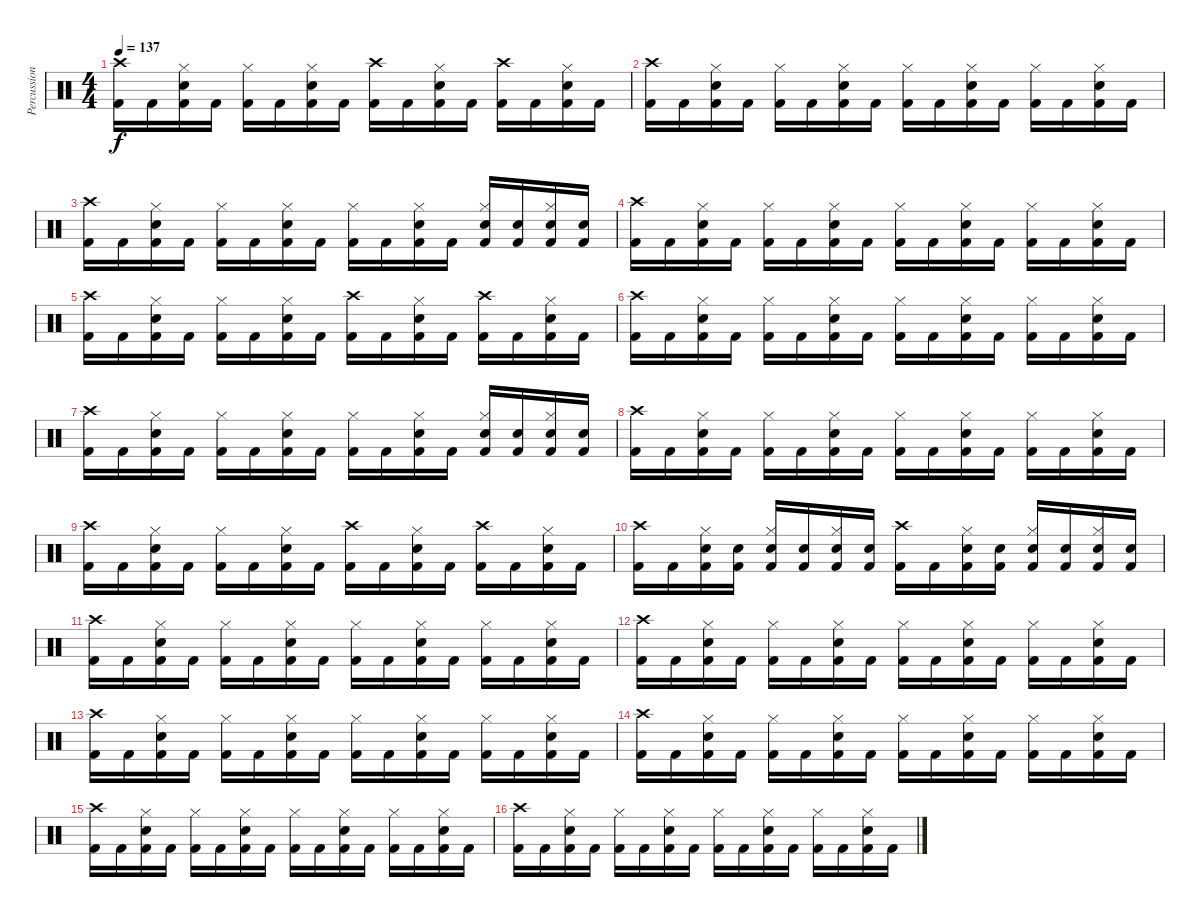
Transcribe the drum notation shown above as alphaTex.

\track ("Percussion" "Percussion") {instrument percussion}
\staff {score}
\articulation defaults
\ts (4 4)
\tempo 137
\clef neutral
\ks c
("Crash high (hit)" "Kick (hit) 2").16{dy f} "Kick (hit) 2".16 ("Hi-Hat (closed)" "Snare (hit) 2" "Kick (hit) 2").16 "Kick (hit) 2".16 ("Hi-Hat (closed)" "Kick (hit) 2").16 "Kick (hit) 2".16 ("Hi-Hat (closed)" "Snare (hit) 2" "Kick (hit) 2").16 "Kick (hit) 2".16 ("Crash high (hit)" "Kick (hit) 2").16 "Kick (hit) 2".16 ("Hi-Hat (closed)" "Snare (hit) 2" "Kick (hit) 2").16 "Kick (hit) 2".16 ("Crash high (hit)" "Kick (hit) 2").16 "Kick (hit) 2".16 ("Hi-Hat (closed)" "Snare (hit) 2" "Kick (hit) 2").16 "Kick (hit) 2".16 |
("Crash high (hit)" "Kick (hit) 2").16 "Kick (hit) 2".16 ("Hi-Hat (closed)" "Snare (hit) 2" "Kick (hit) 2").16 "Kick (hit) 2".16 ("Hi-Hat (closed)" "Kick (hit) 2").16 "Kick (hit) 2".16 ("Hi-Hat (closed)" "Snare (hit) 2" "Kick (hit) 2").16 "Kick (hit) 2".16 ("Hi-Hat (closed)" "Kick (hit) 2").16 "Kick (hit) 2".16 ("Hi-Hat (closed)" "Snare (hit) 2" "Kick (hit) 2").16 "Kick (hit) 2".16 ("Hi-Hat (closed)" "Kick (hit) 2").16 "Kick (hit) 2".16 ("Hi-Hat (closed)" "Snare (hit) 2" "Kick (hit) 2").16 "Kick (hit) 2".16 |
("Crash high (hit)" "Kick (hit) 2").16 "Kick (hit) 2".16 ("Hi-Hat (closed)" "Snare (hit) 2" "Kick (hit) 2").16 "Kick (hit) 2".16 ("Hi-Hat (closed)" "Kick (hit) 2").16 "Kick (hit) 2".16 ("Hi-Hat (closed)" "Snare (hit) 2" "Kick (hit) 2").16 "Kick (hit) 2".16 ("Hi-Hat (closed)" "Kick (hit) 2").16 "Kick (hit) 2".16 ("Hi-Hat (closed)" "Snare (hit) 2" "Kick (hit) 2").16 "Kick (hit) 2".16 ("Hi-Hat (closed)" "Snare (hit) 2" "Kick (hit) 2").16 ("Snare (hit) 2" "Kick (hit) 2").16 ("Hi-Hat (closed)" "Snare (hit) 2" "Kick (hit) 2").16 ("Snare (hit) 2" "Kick (hit) 2").16 |
("Crash high (hit)" "Kick (hit) 2").16 "Kick (hit) 2".16 ("Hi-Hat (closed)" "Snare (hit) 2" "Kick (hit) 2").16 "Kick (hit) 2".16 ("Hi-Hat (closed)" "Kick (hit) 2").16 "Kick (hit) 2".16 ("Hi-Hat (closed)" "Snare (hit) 2" "Kick (hit) 2").16 "Kick (hit) 2".16 ("Hi-Hat (closed)" "Kick (hit) 2").16 "Kick (hit) 2".16 ("Hi-Hat (closed)" "Snare (hit) 2" "Kick (hit) 2").16 "Kick (hit) 2".16 ("Hi-Hat (closed)" "Kick (hit) 2").16 "Kick (hit) 2".16 ("Hi-Hat (closed)" "Snare (hit) 2" "Kick (hit) 2").16 "Kick (hit) 2".16 |
("Crash high (hit)" "Kick (hit) 2").16 "Kick (hit) 2".16 ("Hi-Hat (closed)" "Snare (hit) 2" "Kick (hit) 2").16 "Kick (hit) 2".16 ("Hi-Hat (closed)" "Kick (hit) 2").16 "Kick (hit) 2".16 ("Hi-Hat (closed)" "Snare (hit) 2" "Kick (hit) 2").16 "Kick (hit) 2".16 ("Crash high (hit)" "Kick (hit) 2").16 "Kick (hit) 2".16 ("Hi-Hat (closed)" "Snare (hit) 2" "Kick (hit) 2").16 "Kick (hit) 2".16 ("Crash high (hit)" "Kick (hit) 2").16 "Kick (hit) 2".16 ("Hi-Hat (closed)" "Snare (hit) 2" "Kick (hit) 2").16 "Kick (hit) 2".16 |
("Crash high (hit)" "Kick (hit) 2").16 "Kick (hit) 2".16 ("Hi-Hat (closed)" "Snare (hit) 2" "Kick (hit) 2").16 "Kick (hit) 2".16 ("Hi-Hat (closed)" "Kick (hit) 2").16 "Kick (hit) 2".16 ("Hi-Hat (closed)" "Snare (hit) 2" "Kick (hit) 2").16 "Kick (hit) 2".16 ("Hi-Hat (closed)" "Kick (hit) 2").16 "Kick (hit) 2".16 ("Hi-Hat (closed)" "Snare (hit) 2" "Kick (hit) 2").16 "Kick (hit) 2".16 ("Hi-Hat (closed)" "Kick (hit) 2").16 "Kick (hit) 2".16 ("Hi-Hat (closed)" "Snare (hit) 2" "Kick (hit) 2").16 "Kick (hit) 2".16 |
("Crash high (hit)" "Kick (hit) 2").16 "Kick (hit) 2".16 ("Hi-Hat (closed)" "Snare (hit) 2" "Kick (hit) 2").16 "Kick (hit) 2".16 ("Hi-Hat (closed)" "Kick (hit) 2").16 "Kick (hit) 2".16 ("Hi-Hat (closed)" "Snare (hit) 2" "Kick (hit) 2").16 "Kick (hit) 2".16 ("Hi-Hat (closed)" "Kick (hit) 2").16 "Kick (hit) 2".16 ("Hi-Hat (closed)" "Snare (hit) 2" "Kick (hit) 2").16 "Kick (hit) 2".16 ("Hi-Hat (closed)" "Snare (hit) 2" "Kick (hit) 2").16 ("Snare (hit) 2" "Kick (hit) 2").16 ("Hi-Hat (closed)" "Snare (hit) 2" "Kick (hit) 2").16 ("Snare (hit) 2" "Kick (hit) 2").16 |
("Crash high (hit)" "Kick (hit) 2").16 "Kick (hit) 2".16 ("Hi-Hat (closed)" "Snare (hit) 2" "Kick (hit) 2").16 "Kick (hit) 2".16 ("Hi-Hat (closed)" "Kick (hit) 2").16 "Kick (hit) 2".16 ("Hi-Hat (closed)" "Snare (hit) 2" "Kick (hit) 2").16 "Kick (hit) 2".16 ("Hi-Hat (closed)" "Kick (hit) 2").16 "Kick (hit) 2".16 ("Hi-Hat (closed)" "Snare (hit) 2" "Kick (hit) 2").16 "Kick (hit) 2".16 ("Hi-Hat (closed)" "Kick (hit) 2").16 "Kick (hit) 2".16 ("Hi-Hat (closed)" "Snare (hit) 2" "Kick (hit) 2").16 "Kick (hit) 2".16 |
("Crash high (hit)" "Kick (hit) 2").16 "Kick (hit) 2".16 ("Hi-Hat (closed)" "Snare (hit) 2" "Kick (hit) 2").16 "Kick (hit) 2".16 ("Hi-Hat (closed)" "Kick (hit) 2").16 "Kick (hit) 2".16 ("Hi-Hat (closed)" "Snare (hit) 2" "Kick (hit) 2").16 "Kick (hit) 2".16 ("Crash high (hit)" "Kick (hit) 2").16 "Kick (hit) 2".16 ("Hi-Hat (closed)" "Snare (hit) 2" "Kick (hit) 2").16 "Kick (hit) 2".16 ("Crash high (hit)" "Kick (hit) 2").16 "Kick (hit) 2".16 ("Hi-Hat (closed)" "Snare (hit) 2" "Kick (hit) 2").16 "Kick (hit) 2".16 |
("Crash high (hit)" "Kick (hit) 2").16 "Kick (hit) 2".16 ("Hi-Hat (closed)" "Snare (hit) 2" "Kick (hit) 2").16 ("Snare (hit) 2" "Kick (hit) 2").16 ("Hi-Hat (closed)" "Snare (hit) 2" "Kick (hit) 2").16 ("Snare (hit) 2" "Kick (hit) 2").16 ("Hi-Hat (closed)" "Snare (hit) 2" "Kick (hit) 2").16 ("Snare (hit) 2" "Kick (hit) 2").16 ("Crash high (hit)" "Kick (hit) 2").16 "Kick (hit) 2".16 ("Hi-Hat (closed)" "Snare (hit) 2" "Kick (hit) 2").16 ("Snare (hit) 2" "Kick (hit) 2").16 ("Hi-Hat (closed)" "Snare (hit) 2" "Kick (hit) 2").16 ("Snare (hit) 2" "Kick (hit) 2").16 ("Hi-Hat (closed)" "Snare (hit) 2" "Kick (hit) 2").16 ("Snare (hit) 2" "Kick (hit) 2").16 |
("Crash high (hit)" "Kick (hit) 2").16 "Kick (hit) 2".16 ("Hi-Hat (closed)" "Snare (hit) 2" "Kick (hit) 2").16 "Kick (hit) 2".16 ("Hi-Hat (closed)" "Kick (hit) 2").16 "Kick (hit) 2".16 ("Hi-Hat (closed)" "Snare (hit) 2" "Kick (hit) 2").16 "Kick (hit) 2".16 ("Hi-Hat (closed)" "Kick (hit) 2").16 "Kick (hit) 2".16 ("Hi-Hat (closed)" "Snare (hit) 2" "Kick (hit) 2").16 "Kick (hit) 2".16 ("Hi-Hat (closed)" "Kick (hit) 2").16 "Kick (hit) 2".16 ("Hi-Hat (closed)" "Snare (hit) 2" "Kick (hit) 2").16 "Kick (hit) 2".16 |
("Crash high (hit)" "Kick (hit) 2").16 "Kick (hit) 2".16 ("Hi-Hat (closed)" "Snare (hit) 2" "Kick (hit) 2").16 "Kick (hit) 2".16 ("Hi-Hat (closed)" "Kick (hit) 2").16 "Kick (hit) 2".16 ("Hi-Hat (closed)" "Snare (hit) 2" "Kick (hit) 2").16 "Kick (hit) 2".16 ("Hi-Hat (closed)" "Kick (hit) 2").16 "Kick (hit) 2".16 ("Hi-Hat (closed)" "Snare (hit) 2" "Kick (hit) 2").16 "Kick (hit) 2".16 ("Hi-Hat (closed)" "Kick (hit) 2").16 "Kick (hit) 2".16 ("Hi-Hat (closed)" "Snare (hit) 2" "Kick (hit) 2").16 "Kick (hit) 2".16 |
("Crash high (hit)" "Kick (hit) 2").16 "Kick (hit) 2".16 ("Hi-Hat (closed)" "Snare (hit) 2" "Kick (hit) 2").16 "Kick (hit) 2".16 ("Hi-Hat (closed)" "Kick (hit) 2").16 "Kick (hit) 2".16 ("Hi-Hat (closed)" "Snare (hit) 2" "Kick (hit) 2").16 "Kick (hit) 2".16 ("Hi-Hat (closed)" "Kick (hit) 2").16 "Kick (hit) 2".16 ("Hi-Hat (closed)" "Snare (hit) 2" "Kick (hit) 2").16 "Kick (hit) 2".16 ("Hi-Hat (closed)" "Kick (hit) 2").16 "Kick (hit) 2".16 ("Hi-Hat (closed)" "Snare (hit) 2" "Kick (hit) 2").16 "Kick (hit) 2".16 |
("Crash high (hit)" "Kick (hit) 2").16 "Kick (hit) 2".16 ("Hi-Hat (closed)" "Snare (hit) 2" "Kick (hit) 2").16 "Kick (hit) 2".16 ("Hi-Hat (closed)" "Kick (hit) 2").16 "Kick (hit) 2".16 ("Hi-Hat (closed)" "Snare (hit) 2" "Kick (hit) 2").16 "Kick (hit) 2".16 ("Hi-Hat (closed)" "Kick (hit) 2").16 "Kick (hit) 2".16 ("Hi-Hat (closed)" "Snare (hit) 2" "Kick (hit) 2").16 "Kick (hit) 2".16 ("Hi-Hat (closed)" "Kick (hit) 2").16 "Kick (hit) 2".16 ("Hi-Hat (closed)" "Snare (hit) 2" "Kick (hit) 2").16 "Kick (hit) 2".16 |
("Crash high (hit)" "Kick (hit) 2").16 "Kick (hit) 2".16 ("Hi-Hat (closed)" "Snare (hit) 2" "Kick (hit) 2").16 "Kick (hit) 2".16 ("Hi-Hat (closed)" "Kick (hit) 2").16 "Kick (hit) 2".16 ("Hi-Hat (closed)" "Snare (hit) 2" "Kick (hit) 2").16 "Kick (hit) 2".16 ("Hi-Hat (closed)" "Kick (hit) 2").16 "Kick (hit) 2".16 ("Hi-Hat (closed)" "Snare (hit) 2" "Kick (hit) 2").16 "Kick (hit) 2".16 ("Hi-Hat (closed)" "Kick (hit) 2").16 "Kick (hit) 2".16 ("Hi-Hat (closed)" "Snare (hit) 2" "Kick (hit) 2").16 "Kick (hit) 2".16 |
("Crash high (hit)" "Kick (hit) 2").16 "Kick (hit) 2".16 ("Hi-Hat (closed)" "Snare (hit) 2" "Kick (hit) 2").16 "Kick (hit) 2".16 ("Hi-Hat (closed)" "Kick (hit) 2").16 "Kick (hit) 2".16 ("Hi-Hat (closed)" "Snare (hit) 2" "Kick (hit) 2").16 "Kick (hit) 2".16 ("Hi-Hat (closed)" "Kick (hit) 2").16 "Kick (hit) 2".16 ("Hi-Hat (closed)" "Snare (hit) 2" "Kick (hit) 2").16 "Kick (hit) 2".16 ("Hi-Hat (closed)" "Kick (hit) 2").16 "Kick (hit) 2".16 ("Hi-Hat (closed)" "Snare (hit) 2" "Kick (hit) 2").16 "Kick (hit) 2".16
